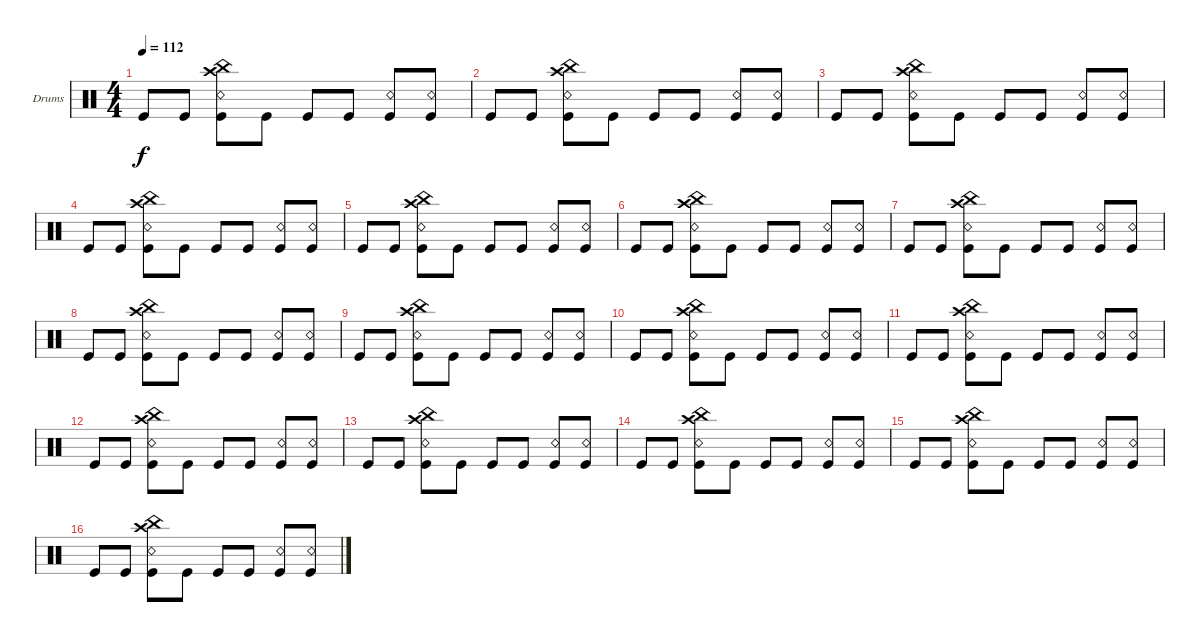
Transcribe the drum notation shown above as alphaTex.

\defaultSystemsLayout 4
\bracketExtendMode groupsimilarinstruments
\firstSystemTrackNameOrientation horizontal
\otherSystemsTrackNameOrientation horizontal
\track ("Drumkit" "Drums") {instrument percussion}
\staff {score}
\articulation defaults
\ts (4 4)
\tempo 112
\clef neutral
\scale
0.973518
\ks c "Kick (hit)".8{dy f} "Kick (hit)".8
("Kick (hit)" "Snare (rim shot)" "China (hit)" "Crash high (hit)").8 "Kick (hit)".8 "Kick (hit)".8 "Kick (hit)".8 ("Kick (hit)" "Snare (rim shot)").8 ("Kick (hit)" "Snare (rim shot)").8 |
\scale
0.973518 "Kick (hit)".8 "Kick (hit)".8 ("Kick (hit)" "Snare (rim shot)" "China (hit)" "Crash high (hit)").8 "Kick (hit)".8 "Kick (hit)".8 "Kick (hit)".8 ("Kick (hit)" "Snare (rim shot)").8 ("Kick (hit)" "Snare (rim shot)").8 |
\scale
1.07945 "Kick (hit)".8 "Kick (hit)".8 ("Kick (hit)" "Snare (rim shot)" "China (hit)" "Crash high (hit)").8 "Kick (hit)".8 "Kick (hit)".8 "Kick (hit)".8 ("Kick (hit)" "Snare (rim shot)").8 ("Kick (hit)" "Snare (rim shot)").8 |
\scale
0.973518 "Kick (hit)".8 "Kick (hit)".8 ("Kick (hit)" "Snare (rim shot)" "China (hit)" "Crash high (hit)").8 "Kick (hit)".8 "Kick (hit)".8 "Kick (hit)".8 ("Kick (hit)" "Snare (rim shot)").8 ("Kick (hit)" "Snare (rim shot)").8 |
\scale
0.973518 "Kick (hit)".8 "Kick (hit)".8 ("Kick (hit)" "Snare (rim shot)" "China (hit)" "Crash high (hit)").8 "Kick (hit)".8 "Kick (hit)".8 "Kick (hit)".8 ("Kick (hit)" "Snare (rim shot)").8 ("Kick (hit)" "Snare (rim shot)").8 |
\scale
0.973518 "Kick (hit)".8 "Kick (hit)".8 ("Kick (hit)" "Snare (rim shot)" "China (hit)" "Crash high (hit)").8 "Kick (hit)".8 "Kick (hit)".8 "Kick (hit)".8 ("Kick (hit)" "Snare (rim shot)").8 ("Kick (hit)" "Snare (rim shot)").8 |
\scale
1.07945 "Kick (hit)".8 "Kick (hit)".8 ("Kick (hit)" "Snare (rim shot)" "China (hit)" "Crash high (hit)").8 "Kick (hit)".8 "Kick (hit)".8 "Kick (hit)".8 ("Kick (hit)" "Snare (rim shot)").8 ("Kick (hit)" "Snare (rim shot)").8 |
\scale
0.973518 "Kick (hit)".8 "Kick (hit)".8 ("Kick (hit)" "Snare (rim shot)" "China (hit)" "Crash high (hit)").8 "Kick (hit)".8 "Kick (hit)".8 "Kick (hit)".8 ("Kick (hit)" "Snare (rim shot)").8 ("Kick (hit)" "Snare (rim shot)").8 |
\scale
0.973518 "Kick (hit)".8 "Kick (hit)".8 ("Kick (hit)" "Snare (rim shot)" "China (hit)" "Crash high (hit)").8 "Kick (hit)".8 "Kick (hit)".8 "Kick (hit)".8 ("Kick (hit)" "Snare (rim shot)").8 ("Kick (hit)" "Snare (rim shot)").8 |
\scale
0.973518 "Kick (hit)".8 "Kick (hit)".8 ("Kick (hit)" "Snare (rim shot)" "China (hit)" "Crash high (hit)").8 "Kick (hit)".8 "Kick (hit)".8 "Kick (hit)".8 ("Kick (hit)" "Snare (rim shot)").8 ("Kick (hit)" "Snare (rim shot)").8 |
\scale
1.07945 "Kick (hit)".8 "Kick (hit)".8 ("Kick (hit)" "Snare (rim shot)" "China (hit)" "Crash high (hit)").8 "Kick (hit)".8 "Kick (hit)".8 "Kick (hit)".8 ("Kick (hit)" "Snare (rim shot)").8 ("Kick (hit)" "Snare (rim shot)").8 |
\scale
0.973518 "Kick (hit)".8 "Kick (hit)".8 ("Kick (hit)" "Snare (rim shot)" "China (hit)" "Crash high (hit)").8 "Kick (hit)".8 "Kick (hit)".8 "Kick (hit)".8 ("Kick (hit)" "Snare (rim shot)").8 ("Kick (hit)" "Snare (rim shot)").8 |
\scale
0.973518 "Kick (hit)".8 "Kick (hit)".8 ("Kick (hit)" "Snare (rim shot)" "China (hit)" "Crash high (hit)").8 "Kick (hit)".8 "Kick (hit)".8 "Kick (hit)".8 ("Kick (hit)" "Snare (rim shot)").8 ("Kick (hit)" "Snare (rim shot)").8 |
\scale
0.973518 "Kick (hit)".8 "Kick (hit)".8 ("Kick (hit)" "Snare (rim shot)" "China (hit)" "Crash high (hit)").8 "Kick (hit)".8 "Kick (hit)".8 "Kick (hit)".8 ("Kick (hit)" "Snare (rim shot)").8 ("Kick (hit)" "Snare (rim shot)").8 |
\scale
1.07945 "Kick (hit)".8 "Kick (hit)".8 ("Kick (hit)" "Snare (rim shot)" "China (hit)" "Crash high (hit)").8 "Kick (hit)".8 "Kick (hit)".8 "Kick (hit)".8 ("Kick (hit)" "Snare (rim shot)").8 ("Kick (hit)" "Snare (rim shot)").8 |
\scale
0.973518 "Kick (hit)".8 "Kick (hit)".8 ("Kick (hit)" "Snare (rim shot)" "China (hit)" "Crash high (hit)").8 "Kick (hit)".8 "Kick (hit)".8 "Kick (hit)".8 ("Kick (hit)" "Snare (rim shot)").8 ("Kick (hit)" "Snare (rim shot)").8
